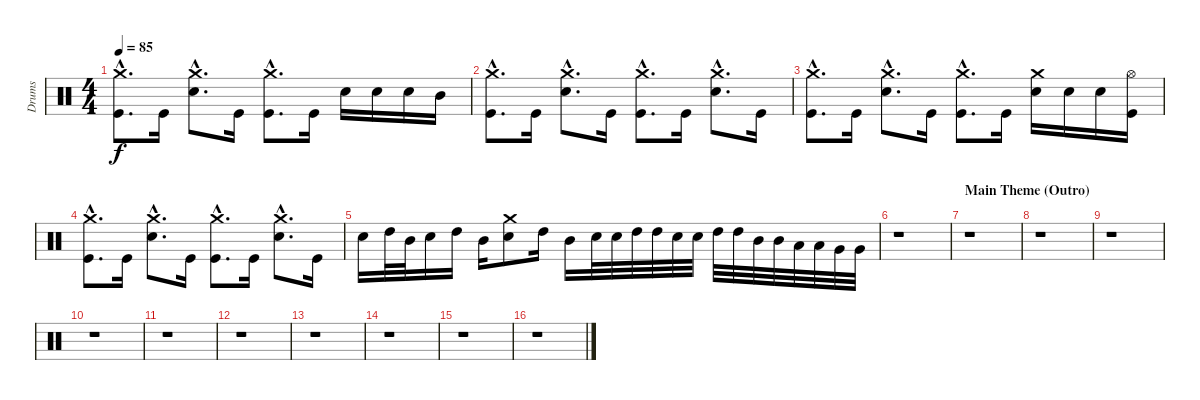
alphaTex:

\track ("Drums" "Drums") {instrument percussion}
\staff {score}
\articulation defaults
\ts (4 4)
\tempo 85
\clef neutral
\ks c
("Crash medium (hit)"{hac} "Kick (hit)"{hac}).8{d dy f} "Kick (hit)".16 ("Crash medium (hit)"{hac} "Electric Snare (hit)"{hac}).8{d} "Kick (hit)".16 ("Crash medium (hit)"{hac} "Kick (hit)"{hac}).8{d} "Kick (hit)".16 "Electric Snare (hit)".16 "Electric Snare (hit)".16 "Electric Snare (hit)".16 "Mid Tom (hit)".16 |
("Crash medium (hit)"{hac} "Kick (hit)"{hac}).8{d} "Kick (hit)".16 ("Crash medium (hit)"{hac} "Electric Snare (hit)"{hac}).8{d} "Kick (hit)".16 ("Crash medium (hit)"{hac} "Kick (hit)"{hac}).8{d} "Kick (hit)".16 ("Crash medium (hit)"{hac} "Electric Snare (hit)"{hac}).8{d} "Kick (hit)".16 |
("Crash medium (hit)"{hac} "Kick (hit)"{hac}).8{d} "Kick (hit)".16 ("Crash medium (hit)"{hac} "Electric Snare (hit)"{hac}).8{d} "Kick (hit)".16 ("Crash medium (hit)"{hac} "Kick (hit)"{hac}).8{d} "Kick (hit)".16 ("Crash medium (hit)" "Electric Snare (hit)").16 "Electric Snare (hit)".16 "Electric Snare (hit)".16 ("Hi-Hat (open)" "Kick (hit)").16 |
("Crash medium (hit)"{hac} "Kick (hit)"{hac}).8{d} "Kick (hit)".16 ("Crash medium (hit)"{hac} "Electric Snare (hit)"{hac}).8{d} "Kick (hit)".16 ("Crash medium (hit)"{hac} "Kick (hit)"{hac}).8{d} "Kick (hit)".16 ("Crash medium (hit)"{hac} "Electric Snare (hit)"{hac}).8{d} "Kick (hit)".16 |
"Electric Snare (hit)".16 "High Tom (hit)".32 "Mid Tom (hit)".32 "Electric Snare (hit)".16 "High Tom (hit)".16 "Mid Tom (hit)".16 ("Crash medium (hit)" "Electric Snare (hit)").8 "High Tom (hit)".16 "Mid Tom (hit)".16 "Electric Snare (hit)".32 "Electric Snare (hit)".32 "High Tom (hit)".32 "High Tom (hit)".32 "Electric Snare (hit)".32 "Electric Snare (hit)".32 "High Tom (hit)".32 "High Tom (hit)".32 "Mid Tom (hit)".32 "Mid Tom (hit)".32 "Low Tom (hit)".32 "Low Tom (hit)".32 "Very Low Tom (hit)".32 "Very Low Tom (hit)".32 |
r.1 |
\section ("" "Main Theme (Outro)")
r.1 |
r.1 |
r.1 |
r.1 |
r.1 |
r.1 |
r.1 |
r.1 |
r.1 |
r.1
